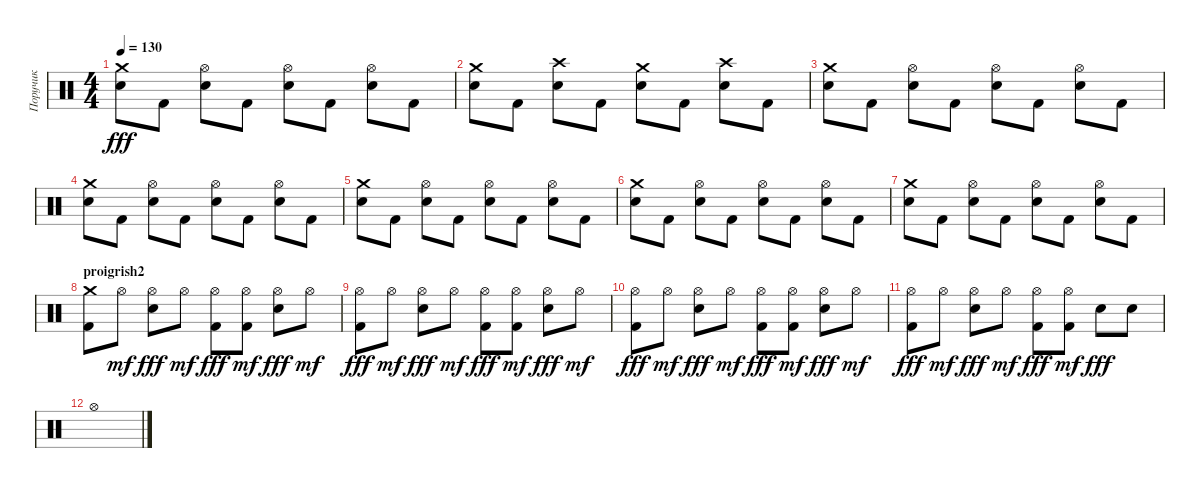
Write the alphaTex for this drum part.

\track ("Поручик" "Поручик") {instrument percussion}
\staff {score}
\articulation defaults
\ts (4 4)
\tempo 130
\clef neutral
\ks c
("Snare (hit) 2" "Crash medium (hit)").8{dy fff} "Kick (hit) 2".8 ("Snare (hit) 2" "Hi-Hat (open)").8 "Kick (hit) 2".8 ("Snare (hit) 2" "Hi-Hat (open)").8 "Kick (hit) 2".8 ("Snare (hit) 2" "Hi-Hat (open)").8 "Kick (hit) 2".8 |
("Snare (hit) 2" "Crash medium (hit)").8 "Kick (hit) 2".8 ("Snare (hit) 2" "Crash high (hit)").8 "Kick (hit) 2".8 ("Snare (hit) 2" "Crash medium (hit)").8 "Kick (hit) 2".8 ("Snare (hit) 2" "Crash high (hit)").8 "Kick (hit) 2".8 |
("Snare (hit) 2" "Crash medium (hit)").8 "Kick (hit) 2".8 ("Snare (hit) 2" "Hi-Hat (open)").8 "Kick (hit) 2".8 ("Snare (hit) 2" "Hi-Hat (open)").8 "Kick (hit) 2".8 ("Snare (hit) 2" "Hi-Hat (open)").8 "Kick (hit) 2".8 |
("Snare (hit) 2" "Crash medium (hit)").8 "Kick (hit) 2".8 ("Snare (hit) 2" "Hi-Hat (open)").8 "Kick (hit) 2".8 ("Snare (hit) 2" "Hi-Hat (open)").8 "Kick (hit) 2".8 ("Snare (hit) 2" "Hi-Hat (open)").8 "Kick (hit) 2".8 |
("Snare (hit) 2" "Crash medium (hit)").8 "Kick (hit) 2".8 ("Snare (hit) 2" "Hi-Hat (open)").8 "Kick (hit) 2".8 ("Snare (hit) 2" "Hi-Hat (open)").8 "Kick (hit) 2".8 ("Snare (hit) 2" "Hi-Hat (open)").8 "Kick (hit) 2".8 |
("Snare (hit) 2" "Crash medium (hit)").8 "Kick (hit) 2".8 ("Snare (hit) 2" "Hi-Hat (open)").8 "Kick (hit) 2".8 ("Snare (hit) 2" "Hi-Hat (open)").8 "Kick (hit) 2".8 ("Snare (hit) 2" "Hi-Hat (open)").8 "Kick (hit) 2".8 |
("Snare (hit) 2" "Crash medium (hit)").8 "Kick (hit) 2".8 ("Snare (hit) 2" "Hi-Hat (open)").8 "Kick (hit) 2".8 ("Snare (hit) 2" "Hi-Hat (open)").8 "Kick (hit) 2".8 ("Snare (hit) 2" "Hi-Hat (open)").8 "Kick (hit) 2".8 |
\section ("" "proigrish2")
("Kick (hit) 2" "Crash medium (hit)").8 "Hi-Hat (open)".8{dy mf} ("Snare (hit) 2" "Hi-Hat (open)").8{dy fff} "Hi-Hat (open)".8{dy mf} ("Kick (hit) 2" "Hi-Hat (open)").8{dy fff} ("Kick (hit) 2" "Hi-Hat (open)").8{dy mf} ("Snare (hit) 2" "Hi-Hat (open)").8{dy fff} "Hi-Hat (open)".8{dy mf} |
("Kick (hit) 2" "Hi-Hat (open)").8{dy fff} "Hi-Hat (open)".8{dy mf} ("Snare (hit) 2" "Hi-Hat (open)").8{dy fff} "Hi-Hat (open)".8{dy mf} ("Kick (hit) 2" "Hi-Hat (open)").8{dy fff} ("Kick (hit) 2" "Hi-Hat (open)").8{dy mf} ("Snare (hit) 2" "Hi-Hat (open)").8{dy fff} "Hi-Hat (open)".8{dy mf} |
("Kick (hit) 2" "Hi-Hat (open)").8{dy fff} "Hi-Hat (open)".8{dy mf} ("Snare (hit) 2" "Hi-Hat (open)").8{dy fff} "Hi-Hat (open)".8{dy mf} ("Kick (hit) 2" "Hi-Hat (open)").8{dy fff} ("Kick (hit) 2" "Hi-Hat (open)").8{dy mf} ("Snare (hit) 2" "Hi-Hat (open)").8{dy fff} "Hi-Hat (open)".8{dy mf} |
("Kick (hit) 2" "Hi-Hat (open)").8{dy fff} "Hi-Hat (open)".8{dy mf} ("Snare (hit) 2" "Hi-Hat (open)").8{dy fff} "Hi-Hat (open)".8{dy mf} ("Kick (hit) 2" "Hi-Hat (open)").8{dy fff} ("Kick (hit) 2" "Hi-Hat (open)").8{dy mf} "Snare (hit) 2".8{dy fff} "Snare (hit) 2".8 |
"Hi-Hat (open)".1
